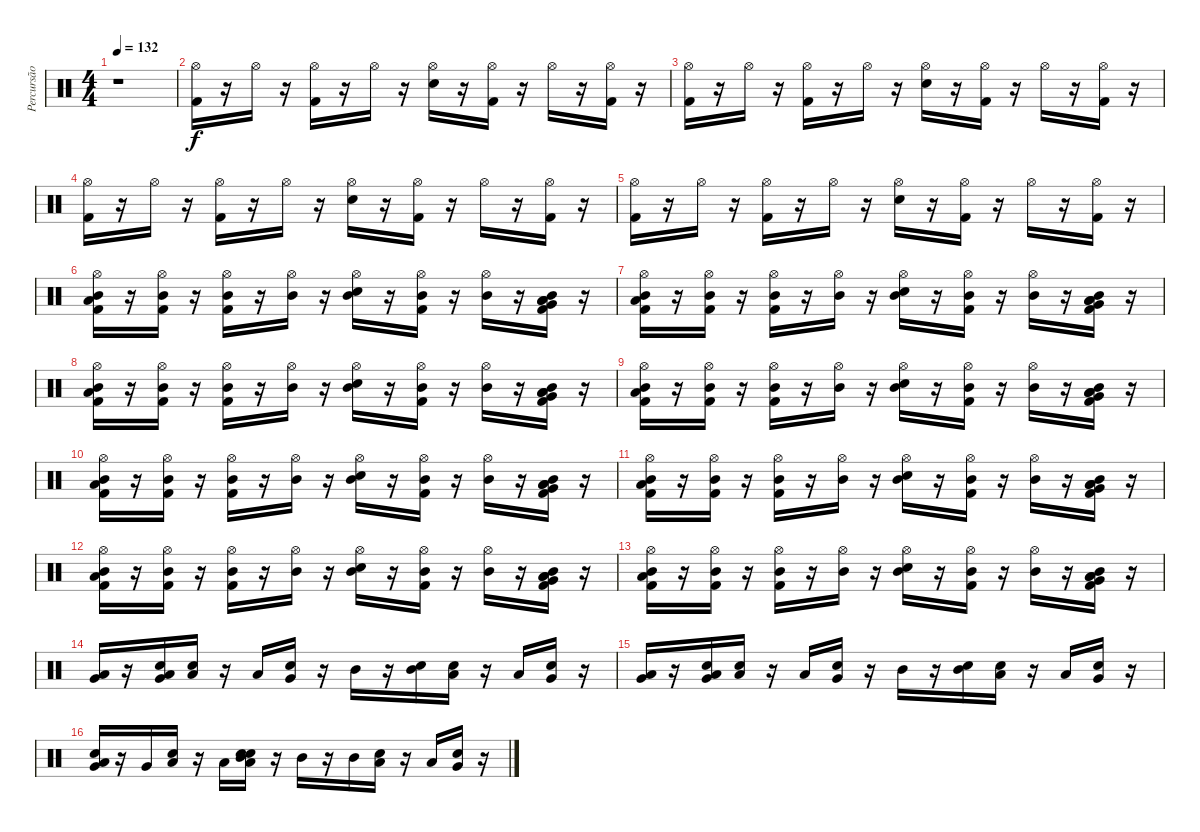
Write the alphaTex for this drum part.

\track ("Percursão" "Percursão") {instrument percussion}
\staff {score}
\articulation defaults
\ts (4 4)
\tempo 132
\clef neutral
\ks c
r.1{dy f} |
("Hi-Hat (open)" "Kick (hit) 2").16 r.16 "Hi-Hat (open)".16 r.16 ("Hi-Hat (open)" "Kick (hit) 2").16 r.16 "Hi-Hat (open)".16 r.16 ("Hi-Hat (open)" "Electric Snare (hit)").16 r.16 ("Hi-Hat (open)" "Kick (hit) 2").16 r.16 "Hi-Hat (open)".16 r.16 ("Hi-Hat (open)" "Kick (hit) 2").16 r.16 |
("Hi-Hat (open)" "Kick (hit) 2").16 r.16 "Hi-Hat (open)".16 r.16 ("Hi-Hat (open)" "Kick (hit) 2").16 r.16 "Hi-Hat (open)".16 r.16 ("Hi-Hat (open)" "Electric Snare (hit)").16 r.16 ("Hi-Hat (open)" "Kick (hit) 2").16 r.16 "Hi-Hat (open)".16 r.16 ("Hi-Hat (open)" "Kick (hit) 2").16 r.16 |
("Hi-Hat (open)" "Kick (hit) 2").16 r.16 "Hi-Hat (open)".16 r.16 ("Hi-Hat (open)" "Kick (hit) 2").16 r.16 "Hi-Hat (open)".16 r.16 ("Hi-Hat (open)" "Electric Snare (hit)").16 r.16 ("Hi-Hat (open)" "Kick (hit) 2").16 r.16 "Hi-Hat (open)".16 r.16 ("Hi-Hat (open)" "Kick (hit) 2").16 r.16 |
("Hi-Hat (open)" "Kick (hit) 2").16 r.16 "Hi-Hat (open)".16 r.16 ("Hi-Hat (open)" "Kick (hit) 2").16 r.16 "Hi-Hat (open)".16 r.16 ("Hi-Hat (open)" "Electric Snare (hit)").16 r.16 ("Hi-Hat (open)" "Kick (hit) 2").16 r.16 "Hi-Hat (open)".16 r.16 ("Hi-Hat (open)" "Kick (hit) 2").16 r.16 |
("Kick (hit) 2" "Low Tom (hit)" "Mid Tom (hit)" "Hi-Hat (open)").16 r.16 ("Mid Tom (hit)" "Kick (hit) 2" "Hi-Hat (open)").16 r.16 ("Mid Tom (hit)" "Kick (hit) 2" "Hi-Hat (open)").16 r.16 ("Mid Tom (hit)" "Hi-Hat (open)").16 r.16 ("Mid Tom (hit)" "Electric Snare (hit)" "Hi-Hat (open)").16 r.16 ("Mid Tom (hit)" "Kick (hit) 2" "Hi-Hat (open)").16 r.16 ("Mid Tom (hit)" "Hi-Hat (open)").16 r.16 ("Kick (hit) 2" "Mid Tom (hit)" "Low Tom (hit)" "Low Floor Tom (hit)" "Very Low Tom (hit)").16 r.16 |
("Kick (hit) 2" "Low Tom (hit)" "Mid Tom (hit)" "Hi-Hat (open)").16 r.16 ("Mid Tom (hit)" "Kick (hit) 2" "Hi-Hat (open)").16 r.16 ("Mid Tom (hit)" "Kick (hit) 2" "Hi-Hat (open)").16 r.16 ("Mid Tom (hit)" "Hi-Hat (open)").16 r.16 ("Mid Tom (hit)" "Electric Snare (hit)" "Hi-Hat (open)").16 r.16 ("Mid Tom (hit)" "Kick (hit) 2" "Hi-Hat (open)").16 r.16 ("Mid Tom (hit)" "Hi-Hat (open)").16 r.16 ("Kick (hit) 2" "Mid Tom (hit)" "Low Tom (hit)" "Low Floor Tom (hit)" "Very Low Tom (hit)").16 r.16 |
("Kick (hit) 2" "Low Tom (hit)" "Mid Tom (hit)" "Hi-Hat (open)").16 r.16 ("Mid Tom (hit)" "Kick (hit) 2" "Hi-Hat (open)").16 r.16 ("Mid Tom (hit)" "Kick (hit) 2" "Hi-Hat (open)").16 r.16 ("Mid Tom (hit)" "Hi-Hat (open)").16 r.16 ("Mid Tom (hit)" "Electric Snare (hit)" "Hi-Hat (open)").16 r.16 ("Mid Tom (hit)" "Kick (hit) 2" "Hi-Hat (open)").16 r.16 ("Mid Tom (hit)" "Hi-Hat (open)").16 r.16 ("Kick (hit) 2" "Mid Tom (hit)" "Low Tom (hit)" "Low Floor Tom (hit)" "Very Low Tom (hit)").16 r.16 |
("Kick (hit) 2" "Low Tom (hit)" "Mid Tom (hit)" "Hi-Hat (open)").16 r.16 ("Mid Tom (hit)" "Kick (hit) 2" "Hi-Hat (open)").16 r.16 ("Mid Tom (hit)" "Kick (hit) 2" "Hi-Hat (open)").16 r.16 ("Mid Tom (hit)" "Hi-Hat (open)").16 r.16 ("Mid Tom (hit)" "Electric Snare (hit)" "Hi-Hat (open)").16 r.16 ("Mid Tom (hit)" "Kick (hit) 2" "Hi-Hat (open)").16 r.16 ("Mid Tom (hit)" "Hi-Hat (open)").16 r.16 ("Kick (hit) 2" "Mid Tom (hit)" "Low Tom (hit)" "Low Floor Tom (hit)" "Very Low Tom (hit)").16 r.16 |
("Kick (hit) 2" "Low Tom (hit)" "Mid Tom (hit)" "Hi-Hat (open)").16 r.16 ("Mid Tom (hit)" "Kick (hit) 2" "Hi-Hat (open)").16 r.16 ("Mid Tom (hit)" "Kick (hit) 2" "Hi-Hat (open)").16 r.16 ("Mid Tom (hit)" "Hi-Hat (open)").16 r.16 ("Mid Tom (hit)" "Electric Snare (hit)" "Hi-Hat (open)").16 r.16 ("Mid Tom (hit)" "Kick (hit) 2" "Hi-Hat (open)").16 r.16 ("Mid Tom (hit)" "Hi-Hat (open)").16 r.16 ("Kick (hit) 2" "Mid Tom (hit)" "Low Tom (hit)" "Low Floor Tom (hit)" "Very Low Tom (hit)").16 r.16 |
("Kick (hit) 2" "Low Tom (hit)" "Mid Tom (hit)" "Hi-Hat (open)").16 r.16 ("Mid Tom (hit)" "Kick (hit) 2" "Hi-Hat (open)").16 r.16 ("Mid Tom (hit)" "Kick (hit) 2" "Hi-Hat (open)").16 r.16 ("Mid Tom (hit)" "Hi-Hat (open)").16 r.16 ("Mid Tom (hit)" "Electric Snare (hit)" "Hi-Hat (open)").16 r.16 ("Mid Tom (hit)" "Kick (hit) 2" "Hi-Hat (open)").16 r.16 ("Mid Tom (hit)" "Hi-Hat (open)").16 r.16 ("Kick (hit) 2" "Mid Tom (hit)" "Low Tom (hit)" "Low Floor Tom (hit)" "Very Low Tom (hit)").16 r.16 |
("Kick (hit) 2" "Low Tom (hit)" "Mid Tom (hit)" "Hi-Hat (open)").16 r.16 ("Mid Tom (hit)" "Kick (hit) 2" "Hi-Hat (open)").16 r.16 ("Mid Tom (hit)" "Kick (hit) 2" "Hi-Hat (open)").16 r.16 ("Mid Tom (hit)" "Hi-Hat (open)").16 r.16 ("Mid Tom (hit)" "Electric Snare (hit)" "Hi-Hat (open)").16 r.16 ("Mid Tom (hit)" "Kick (hit) 2" "Hi-Hat (open)").16 r.16 ("Mid Tom (hit)" "Hi-Hat (open)").16 r.16 ("Kick (hit) 2" "Mid Tom (hit)" "Low Tom (hit)" "Low Floor Tom (hit)" "Very Low Tom (hit)").16 r.16 |
("Kick (hit) 2" "Low Tom (hit)" "Mid Tom (hit)" "Hi-Hat (open)").16 r.16 ("Mid Tom (hit)" "Kick (hit) 2" "Hi-Hat (open)").16 r.16 ("Mid Tom (hit)" "Kick (hit) 2" "Hi-Hat (open)").16 r.16 ("Mid Tom (hit)" "Hi-Hat (open)").16 r.16 ("Mid Tom (hit)" "Electric Snare (hit)" "Hi-Hat (open)").16 r.16 ("Mid Tom (hit)" "Kick (hit) 2" "Hi-Hat (open)").16 r.16 ("Mid Tom (hit)" "Hi-Hat (open)").16 r.16 ("Kick (hit) 2" "Mid Tom (hit)" "Low Tom (hit)" "Low Floor Tom (hit)" "Very Low Tom (hit)").16 r.16 |
("Very Low Tom (hit)" "Low Floor Tom (hit)").16 r.16 ("Electric Snare (hit)" "Low Floor Tom (hit)" "Very Low Tom (hit)").16 ("Snare (hit)" "Low Floor Tom (hit)").16 r.16 "Low Floor Tom (hit)".16 ("Snare (hit)" "Very Low Tom (hit)").16 r.16 "Mid Tom (hit)".16 r.16 ("Mid Tom (hit)" "Electric Snare (hit)").16 ("Snare (hit)" "Low Tom (hit)").16 r.16 "Low Tom (hit)".16 ("Snare (hit)" "Very Low Tom (hit)").16 r.16 |
("Very Low Tom (hit)" "Low Floor Tom (hit)").16 r.16 ("Electric Snare (hit)" "Low Floor Tom (hit)" "Very Low Tom (hit)").16 ("Snare (hit)" "Low Floor Tom (hit)").16 r.16 "Low Floor Tom (hit)".16 ("Snare (hit)" "Very Low Tom (hit)").16 r.16 "Mid Tom (hit)".16 r.16 ("Mid Tom (hit)" "Electric Snare (hit)").16 ("Snare (hit)" "Low Tom (hit)").16 r.16 "Low Tom (hit)".16 ("Snare (hit)" "Very Low Tom (hit)").16 r.16 |
("Electric Snare (hit)" "Low Floor Tom (hit)" "Very Low Tom (hit)").16 r.16 "Very Low Tom (hit)".16 ("Snare (hit)" "Low Floor Tom (hit)").16 r.16 "Low Floor Tom (hit)".16 ("Snare (hit)" "Electric Snare (hit)" "Low Floor Tom (hit)" "Mid Tom (hit)").16 r.16 "Mid Tom (hit)".16 r.16 "Mid Tom (hit)".16 ("Snare (hit)" "Low Tom (hit)").16 r.16 "Low Tom (hit)".16 ("Snare (hit)" "Very Low Tom (hit)").16 r.16
